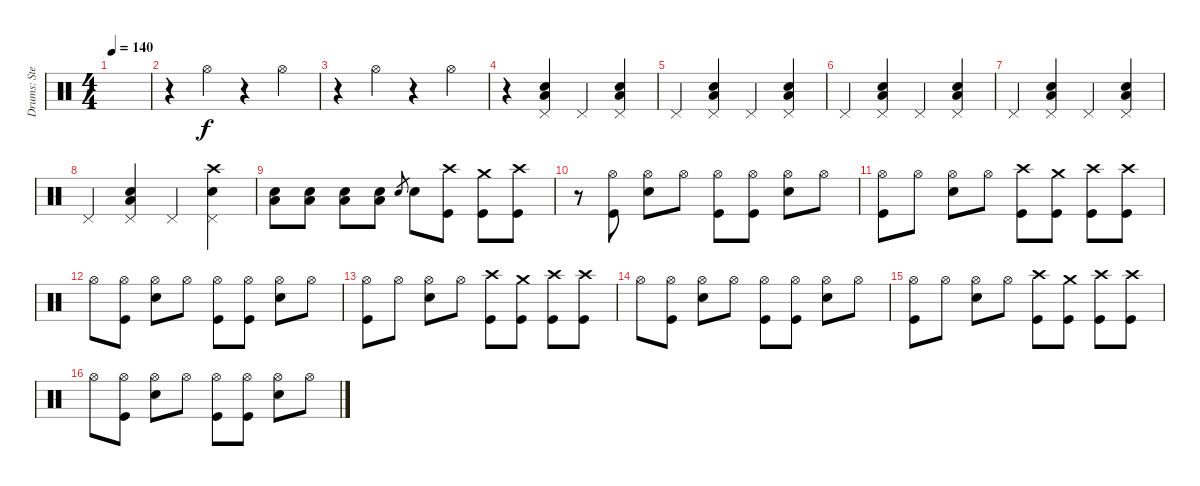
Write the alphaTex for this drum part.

\track ("Drums: Steven Adler" "Drums: Ste") {instrument percussion}
\staff {score}
\articulation defaults
\ts (4 4)
\tempo 140
\clef neutral
\ks c
|
r.4 "Hi-Hat (open)".4 r.4 "Hi-Hat (open)".4 |
r.4 "Hi-Hat (open)".4 r.4 "Hi-Hat (open)".4 |
r.4 ("Pedal Hi-Hat (hit)" "Electric Snare (hit)" "Low Floor Tom (hit)").4 "Pedal Hi-Hat (hit)".4 ("Pedal Hi-Hat (hit)" "Electric Snare (hit)" "Low Floor Tom (hit)").4 |
"Pedal Hi-Hat (hit)".4 ("Pedal Hi-Hat (hit)" "Electric Snare (hit)" "Low Floor Tom (hit)").4 "Pedal Hi-Hat (hit)".4 ("Pedal Hi-Hat (hit)" "Electric Snare (hit)" "Low Floor Tom (hit)").4 |
"Pedal Hi-Hat (hit)".4 ("Pedal Hi-Hat (hit)" "Electric Snare (hit)" "Low Floor Tom (hit)").4 "Pedal Hi-Hat (hit)".4 ("Pedal Hi-Hat (hit)" "Electric Snare (hit)" "Low Floor Tom (hit)").4 |
"Pedal Hi-Hat (hit)".4 ("Pedal Hi-Hat (hit)" "Electric Snare (hit)" "Low Floor Tom (hit)").4 "Pedal Hi-Hat (hit)".4 ("Pedal Hi-Hat (hit)" "Electric Snare (hit)" "Low Floor Tom (hit)").4 |
"Pedal Hi-Hat (hit)".4 ("Pedal Hi-Hat (hit)" "Electric Snare (hit)" "Low Floor Tom (hit)").4 "Pedal Hi-Hat (hit)".4 ("Pedal Hi-Hat (hit)" "Crash high (hit)" "Electric Snare (hit)").4 |
("Electric Snare (hit)" "Low Floor Tom (hit)").8 ("Electric Snare (hit)" "Low Floor Tom (hit)").8 ("Electric Snare (hit)" "Low Floor Tom (hit)").8 ("Electric Snare (hit)" "Low Floor Tom (hit)").8 "Electric Snare (hit)".8{gr} "Electric Snare (hit)".8 ("Crash high (hit)" "Kick (hit)").8 ("Crash medium (hit)" "Kick (hit)").8 ("Crash high (hit)" "Kick (hit)").8 |
r.8 ("Hi-Hat (open)" "Kick (hit)").8 ("Hi-Hat (open)" "Electric Snare (hit)").8 "Hi-Hat (open)".8 ("Hi-Hat (open)" "Kick (hit)").8 ("Hi-Hat (open)" "Kick (hit)").8 ("Hi-Hat (open)" "Electric Snare (hit)").8 "Hi-Hat (open)".8 |
("Hi-Hat (open)" "Kick (hit)").8 "Hi-Hat (open)".8 ("Hi-Hat (open)" "Electric Snare (hit)").8 "Hi-Hat (open)".8 ("Crash high (hit)" "Kick (hit)").8 ("Crash medium (hit)" "Kick (hit)").8 ("Crash high (hit)" "Kick (hit)").8 ("Crash high (hit)" "Kick (hit)").8 |
"Hi-Hat (open)".8 ("Hi-Hat (open)" "Kick (hit)").8 ("Hi-Hat (open)" "Electric Snare (hit)").8 "Hi-Hat (open)".8 ("Hi-Hat (open)" "Kick (hit)").8 ("Hi-Hat (open)" "Kick (hit)").8 ("Hi-Hat (open)" "Electric Snare (hit)").8 "Hi-Hat (open)".8 |
("Hi-Hat (open)" "Kick (hit)").8 "Hi-Hat (open)".8 ("Hi-Hat (open)" "Electric Snare (hit)").8 "Hi-Hat (open)".8 ("Crash high (hit)" "Kick (hit)").8 ("Crash medium (hit)" "Kick (hit)").8 ("Crash high (hit)" "Kick (hit)").8 ("Crash high (hit)" "Kick (hit)").8 |
"Hi-Hat (open)".8 ("Hi-Hat (open)" "Kick (hit)").8 ("Hi-Hat (open)" "Electric Snare (hit)").8 "Hi-Hat (open)".8 ("Hi-Hat (open)" "Kick (hit)").8 ("Hi-Hat (open)" "Kick (hit)").8 ("Hi-Hat (open)" "Electric Snare (hit)").8 "Hi-Hat (open)".8 |
("Hi-Hat (open)" "Kick (hit)").8 "Hi-Hat (open)".8 ("Hi-Hat (open)" "Electric Snare (hit)").8 "Hi-Hat (open)".8 ("Crash high (hit)" "Kick (hit)").8 ("Crash medium (hit)" "Kick (hit)").8 ("Crash high (hit)" "Kick (hit)").8 ("Crash high (hit)" "Kick (hit)").8 |
"Hi-Hat (open)".8 ("Hi-Hat (open)" "Kick (hit)").8 ("Hi-Hat (open)" "Electric Snare (hit)").8 "Hi-Hat (open)".8 ("Hi-Hat (open)" "Kick (hit)").8 ("Hi-Hat (open)" "Kick (hit)").8 ("Hi-Hat (open)" "Electric Snare (hit)").8 "Hi-Hat (open)".8
